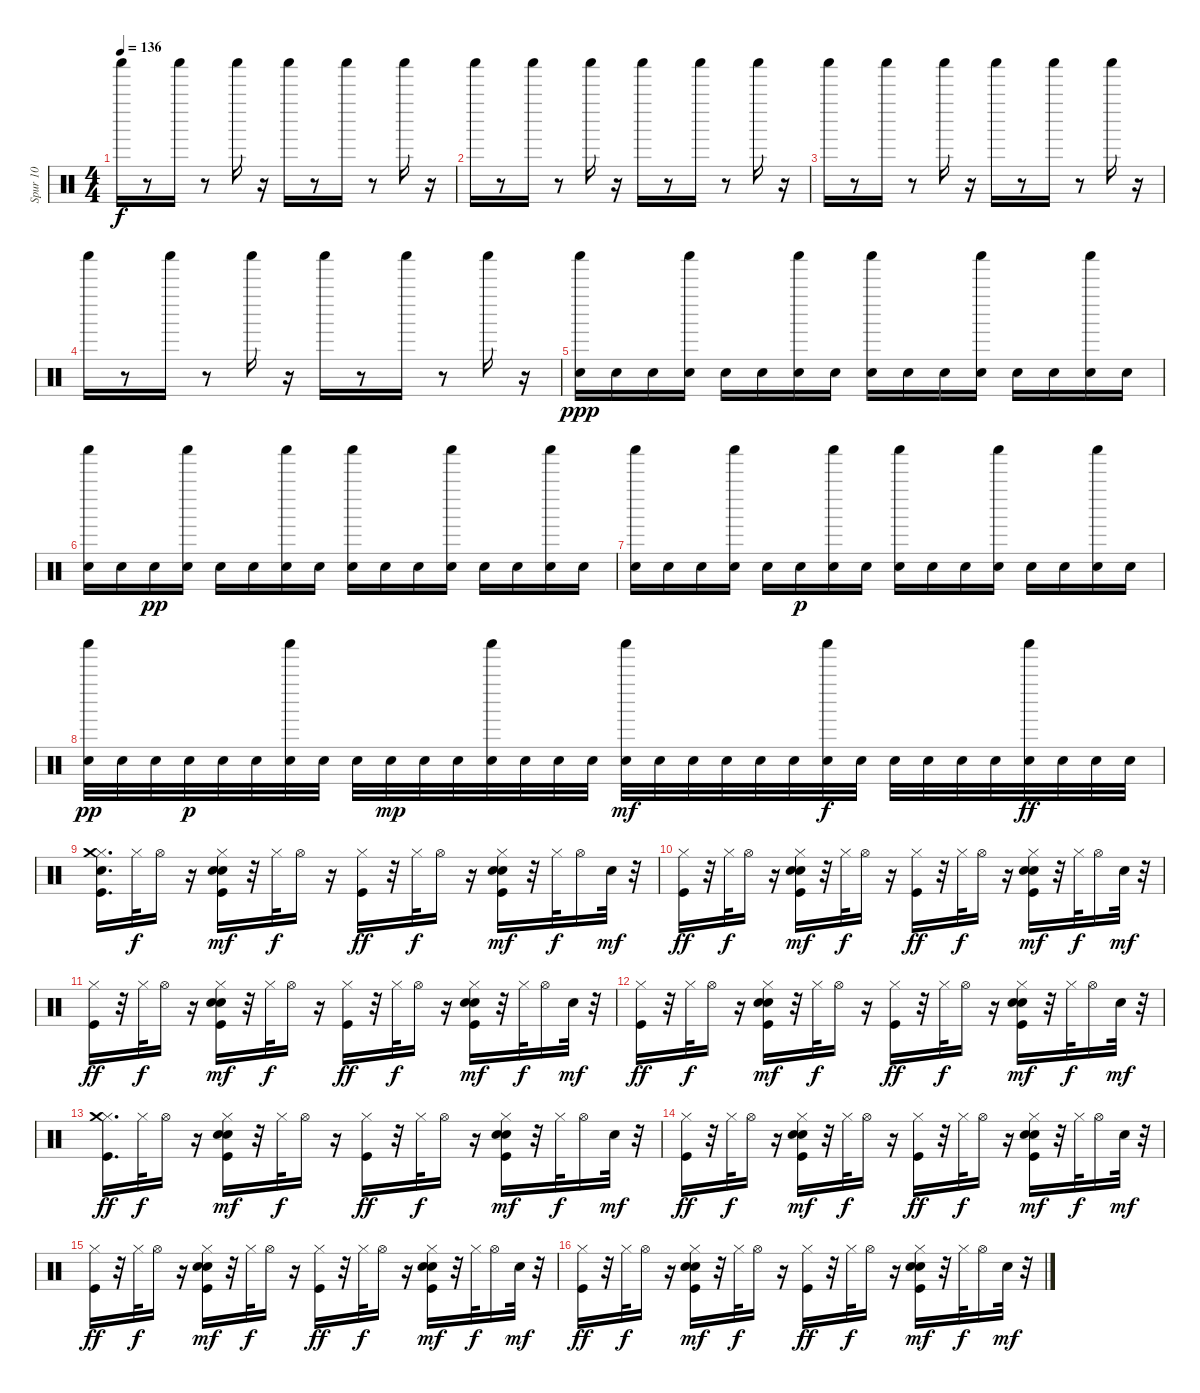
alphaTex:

\track ("Spur 10" "Spur 10") {instrument percussion}
\staff {score}
\articulation defaults
\ts (4 4)
\tempo 136
\clef neutral
\ks c "Shaker (hit)".16{dy f}
r.8 "Shaker (hit)".16 r.8 "Shaker (hit)".16 r.16 "Shaker (hit)".16 r.8 "Shaker (hit)".16 r.8 "Shaker (hit)".16 r.16 |
"Shaker (hit)".16 r.8 "Shaker (hit)".16 r.8 "Shaker (hit)".16 r.16 "Shaker (hit)".16 r.8 "Shaker (hit)".16 r.8 "Shaker (hit)".16 r.16 |
"Shaker (hit)".16 r.8 "Shaker (hit)".16 r.8 "Shaker (hit)".16 r.16 "Shaker (hit)".16 r.8 "Shaker (hit)".16 r.8 "Shaker (hit)".16 r.16 |
"Shaker (hit)".16 r.8 "Shaker (hit)".16 r.8 "Shaker (hit)".16 r.16 "Shaker (hit)".16 r.8 "Shaker (hit)".16 r.8 "Shaker (hit)".16 r.16 |
("Shaker (hit)" "Snare (hit) 2").16{dy ppp} "Snare (hit) 2".16 "Snare (hit) 2".16 ("Shaker (hit)" "Snare (hit) 2").16 "Snare (hit) 2".16 "Snare (hit) 2".16 ("Shaker (hit)" "Snare (hit) 2").16 "Snare (hit) 2".16 ("Shaker (hit)" "Snare (hit) 2").16 "Snare (hit) 2".16 "Snare (hit) 2".16 ("Shaker (hit)" "Snare (hit) 2").16 "Snare (hit) 2".16 "Snare (hit) 2".16 ("Shaker (hit)" "Snare (hit) 2").16 "Snare (hit) 2".16 |
("Shaker (hit)" "Snare (hit) 2").16 "Snare (hit) 2".16 "Snare (hit) 2".16{dy pp} ("Shaker (hit)" "Snare (hit) 2").16 "Snare (hit) 2".16 "Snare (hit) 2".16 ("Shaker (hit)" "Snare (hit) 2").16 "Snare (hit) 2".16 ("Shaker (hit)" "Snare (hit) 2").16 "Snare (hit) 2".16 "Snare (hit) 2".16 ("Shaker (hit)" "Snare (hit) 2").16 "Snare (hit) 2".16 "Snare (hit) 2".16 ("Shaker (hit)" "Snare (hit) 2").16 "Snare (hit) 2".16 |
("Shaker (hit)" "Snare (hit) 2").16 "Snare (hit) 2".16 "Snare (hit) 2".16 ("Shaker (hit)" "Snare (hit) 2").16 "Snare (hit) 2".16 "Snare (hit) 2".16{dy p} ("Shaker (hit)" "Snare (hit) 2").16 "Snare (hit) 2".16 ("Shaker (hit)" "Snare (hit) 2").16 "Snare (hit) 2".16 "Snare (hit) 2".16 ("Shaker (hit)" "Snare (hit) 2").16 "Snare (hit) 2".16 "Snare (hit) 2".16 ("Shaker (hit)" "Snare (hit) 2").16 "Snare (hit) 2".16 |
("Shaker (hit)" "Snare (hit) 2").32{dy pp} "Snare (hit) 2".32 "Snare (hit) 2".32 "Snare (hit) 2".32{dy p} "Snare (hit) 2".32 "Snare (hit) 2".32 ("Shaker (hit)" "Snare (hit) 2").32 "Snare (hit) 2".32 "Snare (hit) 2".32 "Snare (hit) 2".32{dy mp} "Snare (hit) 2".32 "Snare (hit) 2".32 ("Shaker (hit)" "Snare (hit) 2").32 "Snare (hit) 2".32 "Snare (hit) 2".32 "Snare (hit) 2".32 ("Shaker (hit)" "Snare (hit) 2").32{dy mf} "Snare (hit) 2".32 "Snare (hit) 2".32 "Snare (hit) 2".32 "Snare (hit) 2".32 "Snare (hit) 2".32 ("Shaker (hit)" "Snare (hit) 2").32{dy f} "Snare (hit) 2".32 "Snare (hit) 2".32 "Snare (hit) 2".32 "Snare (hit) 2".32 "Snare (hit) 2".32 ("Shaker (hit)" "Snare (hit) 2").32{dy ff} "Snare (hit) 2".32 "Snare (hit) 2".32 "Snare (hit) 2".32 |
("Kick (hit)" "Hi-Hat (closed)" "Crash medium (hit)" "Snare (hit) 2").16{d} "Hi-Hat (closed)".32{dy f} "Hi-Hat (open)".16 r.16 ("Kick (hit)" "Snare (hit) 2" "Hi-Hat (closed)" "Hand Clap (hit)").16{dy mf} r.32 "Hi-Hat (closed)".32{dy f} "Hi-Hat (open)".16 r.16 ("Kick (hit)" "Hi-Hat (closed)").16{dy ff} r.32 "Hi-Hat (closed)".32{dy f} "Hi-Hat (open)".16 r.16 ("Kick (hit)" "Snare (hit) 2" "Hi-Hat (closed)" "Hand Clap (hit)").16{dy mf} r.32 "Hi-Hat (closed)".32{dy f} "Hi-Hat (open)".16 "Snare (hit) 2".32{dy mf} r.32 |
("Kick (hit)" "Hi-Hat (closed)").16{dy ff} r.32 "Hi-Hat (closed)".32{dy f} "Hi-Hat (open)".16 r.16 ("Kick (hit)" "Snare (hit) 2" "Hi-Hat (closed)" "Hand Clap (hit)").16{dy mf} r.32 "Hi-Hat (closed)".32{dy f} "Hi-Hat (open)".16 r.16 ("Kick (hit)" "Hi-Hat (closed)").16{dy ff} r.32 "Hi-Hat (closed)".32{dy f} "Hi-Hat (open)".16 r.16 ("Kick (hit)" "Snare (hit) 2" "Hi-Hat (closed)" "Hand Clap (hit)").16{dy mf} r.32 "Hi-Hat (closed)".32{dy f} "Hi-Hat (open)".16 "Snare (hit) 2".32{dy mf} r.32 |
("Kick (hit)" "Hi-Hat (closed)").16{dy ff} r.32 "Hi-Hat (closed)".32{dy f} "Hi-Hat (open)".16 r.16 ("Kick (hit)" "Snare (hit) 2" "Hi-Hat (closed)" "Hand Clap (hit)").16{dy mf} r.32 "Hi-Hat (closed)".32{dy f} "Hi-Hat (open)".16 r.16 ("Kick (hit)" "Hi-Hat (closed)").16{dy ff} r.32 "Hi-Hat (closed)".32{dy f} "Hi-Hat (open)".16 r.16 ("Kick (hit)" "Snare (hit) 2" "Hi-Hat (closed)" "Hand Clap (hit)").16{dy mf} r.32 "Hi-Hat (closed)".32{dy f} "Hi-Hat (open)".16 "Snare (hit) 2".32{dy mf} r.32 |
("Kick (hit)" "Hi-Hat (closed)").16{dy ff} r.32 "Hi-Hat (closed)".32{dy f} "Hi-Hat (open)".16 r.16 ("Kick (hit)" "Snare (hit) 2" "Hi-Hat (closed)" "Hand Clap (hit)").16{dy mf} r.32 "Hi-Hat (closed)".32{dy f} "Hi-Hat (open)".16 r.16 ("Kick (hit)" "Hi-Hat (closed)").16{dy ff} r.32 "Hi-Hat (closed)".32{dy f} "Hi-Hat (open)".16 r.16 ("Kick (hit)" "Snare (hit) 2" "Hi-Hat (closed)" "Hand Clap (hit)").16{dy mf} r.32 "Hi-Hat (closed)".32{dy f} "Hi-Hat (open)".16 "Snare (hit) 2".32{dy mf} r.32 |
("Kick (hit)" "Hi-Hat (closed)" "Crash medium (hit)").16{d dy ff} "Hi-Hat (closed)".32{dy f} "Hi-Hat (open)".16 r.16 ("Kick (hit)" "Snare (hit) 2" "Hi-Hat (closed)" "Hand Clap (hit)").16{dy mf} r.32 "Hi-Hat (closed)".32{dy f} "Hi-Hat (open)".16 r.16 ("Kick (hit)" "Hi-Hat (closed)").16{dy ff} r.32 "Hi-Hat (closed)".32{dy f} "Hi-Hat (open)".16 r.16 ("Kick (hit)" "Snare (hit) 2" "Hi-Hat (closed)" "Hand Clap (hit)").16{dy mf} r.32 "Hi-Hat (closed)".32{dy f} "Hi-Hat (open)".16 "Snare (hit) 2".32{dy mf} r.32 |
("Kick (hit)" "Hi-Hat (closed)").16{dy ff} r.32 "Hi-Hat (closed)".32{dy f} "Hi-Hat (open)".16 r.16 ("Kick (hit)" "Snare (hit) 2" "Hi-Hat (closed)" "Hand Clap (hit)").16{dy mf} r.32 "Hi-Hat (closed)".32{dy f} "Hi-Hat (open)".16 r.16 ("Kick (hit)" "Hi-Hat (closed)").16{dy ff} r.32 "Hi-Hat (closed)".32{dy f} "Hi-Hat (open)".16 r.16 ("Kick (hit)" "Snare (hit) 2" "Hi-Hat (closed)" "Hand Clap (hit)").16{dy mf} r.32 "Hi-Hat (closed)".32{dy f} "Hi-Hat (open)".16 "Snare (hit) 2".32{dy mf} r.32 |
("Kick (hit)" "Hi-Hat (closed)").16{dy ff} r.32 "Hi-Hat (closed)".32{dy f} "Hi-Hat (open)".16 r.16 ("Kick (hit)" "Snare (hit) 2" "Hi-Hat (closed)" "Hand Clap (hit)").16{dy mf} r.32 "Hi-Hat (closed)".32{dy f} "Hi-Hat (open)".16 r.16 ("Kick (hit)" "Hi-Hat (closed)").16{dy ff} r.32 "Hi-Hat (closed)".32{dy f} "Hi-Hat (open)".16 r.16 ("Kick (hit)" "Snare (hit) 2" "Hi-Hat (closed)" "Hand Clap (hit)").16{dy mf} r.32 "Hi-Hat (closed)".32{dy f} "Hi-Hat (open)".16 "Snare (hit) 2".32{dy mf} r.32 |
("Kick (hit)" "Hi-Hat (closed)").16{dy ff} r.32 "Hi-Hat (closed)".32{dy f} "Hi-Hat (open)".16 r.16 ("Kick (hit)" "Snare (hit) 2" "Hi-Hat (closed)" "Hand Clap (hit)").16{dy mf} r.32 "Hi-Hat (closed)".32{dy f} "Hi-Hat (open)".16 r.16 ("Kick (hit)" "Hi-Hat (closed)").16{dy ff} r.32 "Hi-Hat (closed)".32{dy f} "Hi-Hat (open)".16 r.16 ("Kick (hit)" "Snare (hit) 2" "Hi-Hat (closed)" "Hand Clap (hit)").16{dy mf} r.32 "Hi-Hat (closed)".32{dy f} "Hi-Hat (open)".16 "Snare (hit) 2".32{dy mf} r.32
